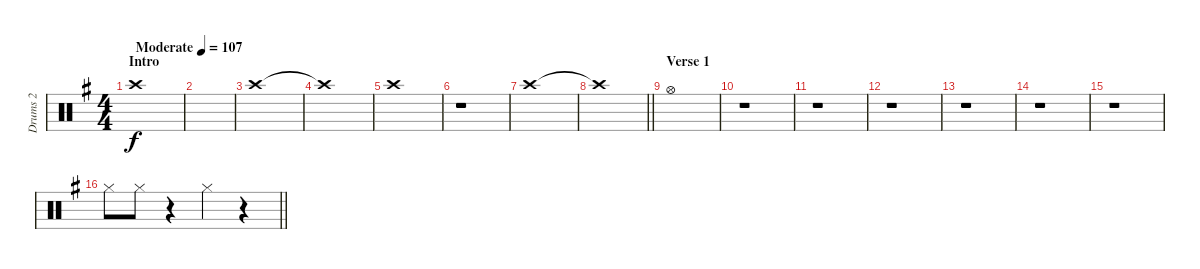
\track ("Drums 2" "Drums 2") {instrument percussion}
\staff {score}
\articulation defaults
\ts (4 4)
\section ("" "Intro")
\tempo (107 "Moderate")
\clef neutral
\ks g "Crash high (hit)".1{dy f}
|
|
"Crash high (hit)".1 |
"Crash high (hit)"{t}.1 |
"Crash high (hit)".1 |
r.1 |
"Crash high (hit)".1 |
\barLineRight lightlight "Crash high (hit)"{t}.1
|
\section ("" "Verse 1")
"Hi-Hat (open)".1 |
r.1 |
r.1 |
r.1 |
r.1 |
r.1 |
r.1 |
\barLineRight lightlight "Hi-Hat (closed)".8 "Hi-Hat (closed)".8
r.4 "Hi-Hat (closed)".4 r.4
